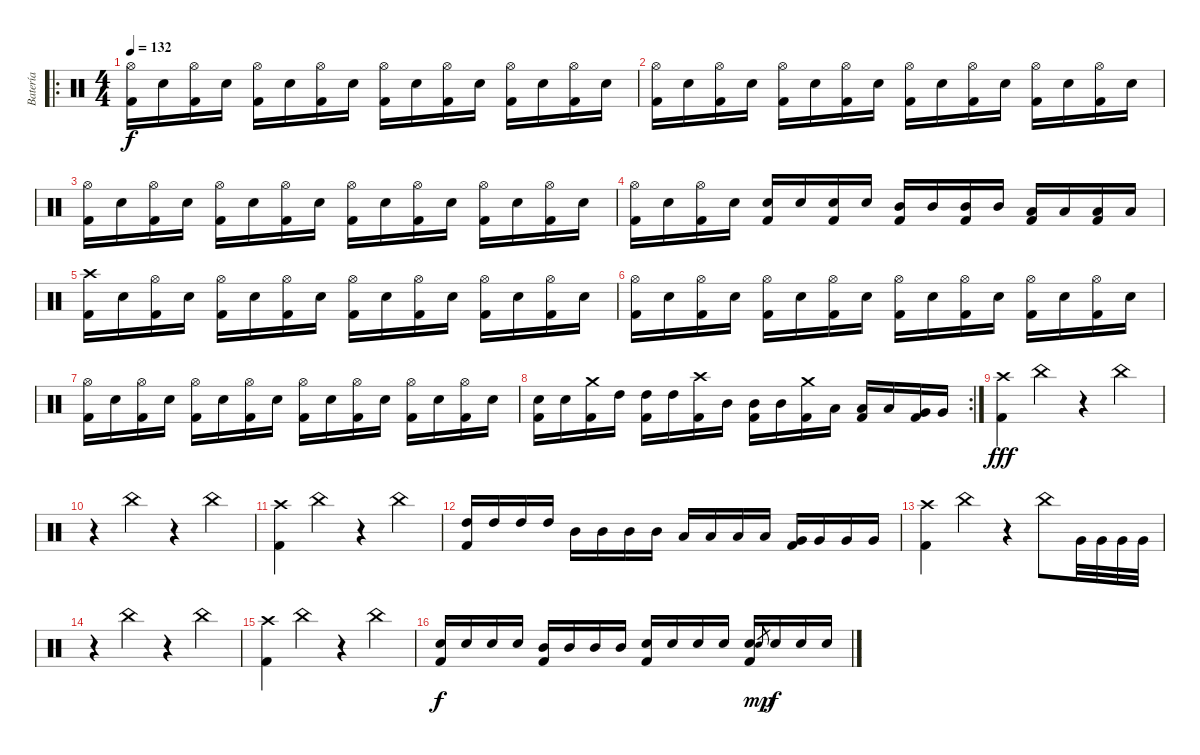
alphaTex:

\track ("Batería" "Batería") {instrument percussion}
\staff {score}
\articulation defaults
\ro
\ts (4 4)
\tempo 132
\clef neutral
\ks c
("Hi-Hat (open)" "Kick (hit) 2").16{dy f} "Snare (hit) 2".16 ("Hi-Hat (open)" "Kick (hit) 2").16 "Snare (hit) 2".16 ("Hi-Hat (open)" "Kick (hit) 2").16 "Snare (hit) 2".16 ("Hi-Hat (open)" "Kick (hit) 2").16 "Snare (hit) 2".16 ("Hi-Hat (open)" "Kick (hit) 2").16 "Snare (hit) 2".16 ("Hi-Hat (open)" "Kick (hit) 2").16 "Snare (hit) 2".16 ("Hi-Hat (open)" "Kick (hit) 2").16 "Snare (hit) 2".16 ("Hi-Hat (open)" "Kick (hit) 2").16 "Snare (hit) 2".16 |
("Hi-Hat (open)" "Kick (hit) 2").16 "Snare (hit) 2".16 ("Hi-Hat (open)" "Kick (hit) 2").16 "Snare (hit) 2".16 ("Hi-Hat (open)" "Kick (hit) 2").16 "Snare (hit) 2".16 ("Hi-Hat (open)" "Kick (hit) 2").16 "Snare (hit) 2".16 ("Hi-Hat (open)" "Kick (hit) 2").16 "Snare (hit) 2".16 ("Hi-Hat (open)" "Kick (hit) 2").16 "Snare (hit) 2".16 ("Hi-Hat (open)" "Kick (hit) 2").16 "Snare (hit) 2".16 ("Hi-Hat (open)" "Kick (hit) 2").16 "Snare (hit) 2".16 |
("Hi-Hat (open)" "Kick (hit) 2").16 "Snare (hit) 2".16 ("Hi-Hat (open)" "Kick (hit) 2").16 "Snare (hit) 2".16 ("Hi-Hat (open)" "Kick (hit) 2").16 "Snare (hit) 2".16 ("Hi-Hat (open)" "Kick (hit) 2").16 "Snare (hit) 2".16 ("Hi-Hat (open)" "Kick (hit) 2").16 "Snare (hit) 2".16 ("Hi-Hat (open)" "Kick (hit) 2").16 "Snare (hit) 2".16 ("Hi-Hat (open)" "Kick (hit) 2").16 "Snare (hit) 2".16 ("Hi-Hat (open)" "Kick (hit) 2").16 "Snare (hit) 2".16 |
("Hi-Hat (open)" "Kick (hit) 2").16 "Snare (hit) 2".16 ("Hi-Hat (open)" "Kick (hit) 2").16 "Snare (hit) 2".16 ("Kick (hit) 2" "Snare (hit) 2").16 "Snare (hit) 2".16 ("Kick (hit) 2" "Snare (hit) 2").16 "Snare (hit) 2".16 ("Kick (hit) 2" "Mid Tom (hit)").16 "Mid Tom (hit)".16 ("Kick (hit) 2" "Mid Tom (hit)").16 "Mid Tom (hit)".16 ("Kick (hit) 2" "Low Tom (hit)").16 "Low Tom (hit)".16 ("Kick (hit) 2" "Low Tom (hit)").16 "Low Tom (hit)".16 |
("Crash high (hit)" "Kick (hit) 2").16 "Snare (hit) 2".16 ("Hi-Hat (open)" "Kick (hit) 2").16 "Snare (hit) 2".16 ("Hi-Hat (open)" "Kick (hit) 2").16 "Snare (hit) 2".16 ("Hi-Hat (open)" "Kick (hit) 2").16 "Snare (hit) 2".16 ("Hi-Hat (open)" "Kick (hit) 2").16 "Snare (hit) 2".16 ("Hi-Hat (open)" "Kick (hit) 2").16 "Snare (hit) 2".16 ("Hi-Hat (open)" "Kick (hit) 2").16 "Snare (hit) 2".16 ("Hi-Hat (open)" "Kick (hit) 2").16 "Snare (hit) 2".16 |
("Hi-Hat (open)" "Kick (hit) 2").16 "Snare (hit) 2".16 ("Hi-Hat (open)" "Kick (hit) 2").16 "Snare (hit) 2".16 ("Hi-Hat (open)" "Kick (hit) 2").16 "Snare (hit) 2".16 ("Hi-Hat (open)" "Kick (hit) 2").16 "Snare (hit) 2".16 ("Hi-Hat (open)" "Kick (hit) 2").16 "Snare (hit) 2".16 ("Hi-Hat (open)" "Kick (hit) 2").16 "Snare (hit) 2".16 ("Hi-Hat (open)" "Kick (hit) 2").16 "Snare (hit) 2".16 ("Hi-Hat (open)" "Kick (hit) 2").16 "Snare (hit) 2".16 |
("Hi-Hat (open)" "Kick (hit) 2").16 "Snare (hit) 2".16 ("Hi-Hat (open)" "Kick (hit) 2").16 "Snare (hit) 2".16 ("Hi-Hat (open)" "Kick (hit) 2").16 "Snare (hit) 2".16 ("Hi-Hat (open)" "Kick (hit) 2").16 "Snare (hit) 2".16 ("Hi-Hat (open)" "Kick (hit) 2").16 "Snare (hit) 2".16 ("Hi-Hat (open)" "Kick (hit) 2").16 "Snare (hit) 2".16 ("Hi-Hat (open)" "Kick (hit) 2").16 "Snare (hit) 2".16 ("Hi-Hat (open)" "Kick (hit) 2").16 "Snare (hit) 2".16 |
\rc 2
("Kick (hit) 2" "Snare (hit) 2").16 "Snare (hit) 2".16 ("Crash medium (hit)" "Kick (hit) 2").16 "High Tom (hit)".16 ("Kick (hit) 2" "High Tom (hit)").16 "High Tom (hit)".16 ("Crash high (hit)" "Kick (hit) 2").16 "Mid Tom (hit)".16 ("Kick (hit) 2" "Mid Tom (hit)").16 "Mid Tom (hit)".16 ("Crash medium (hit)" "Kick (hit) 2").16 "Low Tom (hit)".16 ("Kick (hit) 2" "Low Tom (hit)").16 "Low Tom (hit)".16 ("Kick (hit) 2" "Very Low Tom (hit)").16 "Very Low Tom (hit)".16 |
("Crash high (hit)" "Kick (hit) 2").4{dy fff} "China (hit)".4{balance 5} r.4 "China (hit)".4{balance 16} |
r.4 "China (hit)".4{balance 5} r.4 "China (hit)".4{balance 16} |
("Crash high (hit)" "Kick (hit) 2").4{balance 8} "China (hit)".4{balance 5} r.4 "China (hit)".4{balance 16} |
("Kick (hit) 2" "High Tom (hit)").16{balance 8} "High Tom (hit)".16 "High Tom (hit)".16 "High Tom (hit)".16 "Mid Tom (hit)".16 "Mid Tom (hit)".16 "Mid Tom (hit)".16 "Mid Tom (hit)".16 "Low Tom (hit)".16 "Low Tom (hit)".16 "Low Tom (hit)".16 "Low Tom (hit)".16 ("Kick (hit) 2" "Very Low Tom (hit)").16 "Very Low Tom (hit)".16 "Very Low Tom (hit)".16 "Very Low Tom (hit)".16 |
("Crash high (hit)" "Kick (hit) 2").4 "China (hit)".4{balance 5} r.4 "China (hit)".8{balance 16} "Very Low Tom (hit)".32{balance 8} "Very Low Tom (hit)".32 "Very Low Tom (hit)".32 "Very Low Tom (hit)".32 |
r.4 "China (hit)".4{balance 5} r.4 "China (hit)".4{balance 16} |
("Crash high (hit)" "Kick (hit) 2").4{balance 8} "China (hit)".4{balance 5} r.4 "China (hit)".4{balance 16} |
("Kick (hit) 2" "Snare (hit) 2").16{dy f balance 8} "Snare (hit) 2".16 "Snare (hit) 2".16 "Snare (hit) 2".16 ("Kick (hit) 2" "Mid Tom (hit)").16 "Mid Tom (hit)".16 "Mid Tom (hit)".16 "Mid Tom (hit)".16 ("Kick (hit) 2" "Snare (hit) 2").16 "Snare (hit) 2".16 "Snare (hit) 2".16 "Snare (hit) 2".16 ("Kick (hit) 2" "Snare (hit) 2").16 "Snare (hit) 2".8{gr dy mp} "Snare (hit) 2".16{dy f} "Snare (hit) 2".16 "Snare (hit) 2".16
